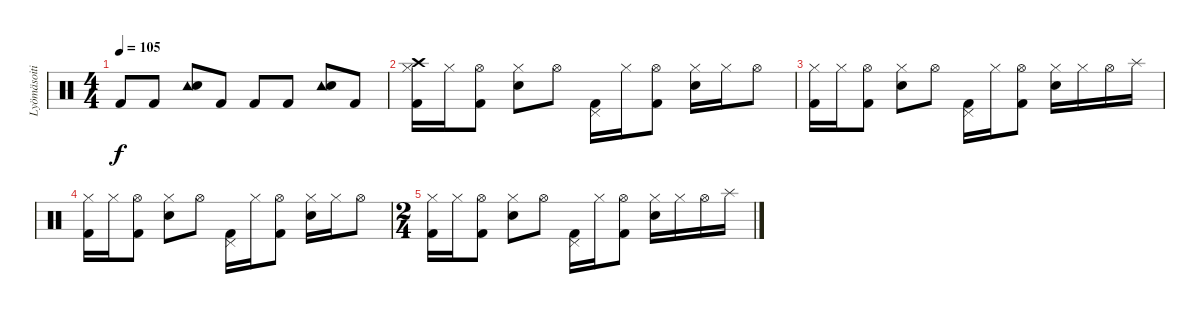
\track ("Lyömäsoitin" "Lyömäsoiti") {instrument percussion}
\staff {score}
\articulation defaults
\ts (4 4)
\tempo 105
\clef neutral
\ks c "Kick (hit) 2".8{dy f} "Kick (hit) 2".8
("Tambourine (hit)" "Electric Snare (hit)").8 "Kick (hit) 2".8 "Kick (hit) 2".8 "Kick (hit) 2".8 ("Tambourine (hit)" "Electric Snare (hit)").8 "Kick (hit) 2".8 |
("Crash high (hit)" "Hi-Hat (closed)" "Kick (hit) 2").16 "Hi-Hat (closed)".16 ("Hi-Hat (open)" "Kick (hit) 2").8 ("Hi-Hat (closed)" "Electric Snare (hit)").8 "Hi-Hat (open)".8 ("Pedal Hi-Hat (hit)" "Kick (hit) 2").16 "Hi-Hat (closed)".16 ("Hi-Hat (open)" "Kick (hit) 2").8 ("Hi-Hat (closed)" "Electric Snare (hit)").16 "Hi-Hat (closed)".16 "Hi-Hat (open)".8 |
("Hi-Hat (closed)" "Kick (hit) 2").16 "Hi-Hat (closed)".16 ("Hi-Hat (open)" "Kick (hit) 2").8 ("Hi-Hat (closed)" "Electric Snare (hit)").8 "Hi-Hat (open)".8 ("Pedal Hi-Hat (hit)" "Kick (hit) 2").16 "Hi-Hat (closed)".16 ("Hi-Hat (open)" "Kick (hit) 2").8 ("Hi-Hat (closed)" "Electric Snare (hit)").16 "Hi-Hat (closed)".16 "Hi-Hat (open)".16 "Splash (hit)".16 |
("Hi-Hat (closed)" "Kick (hit) 2").16 "Hi-Hat (closed)".16 ("Hi-Hat (open)" "Kick (hit) 2").8 ("Hi-Hat (closed)" "Electric Snare (hit)").8 "Hi-Hat (open)".8 ("Pedal Hi-Hat (hit)" "Kick (hit) 2").16 "Hi-Hat (closed)".16 ("Hi-Hat (open)" "Kick (hit) 2").8 ("Hi-Hat (closed)" "Electric Snare (hit)").16 "Hi-Hat (closed)".16 "Hi-Hat (open)".8 |
\ts (2 4)
("Hi-Hat (closed)" "Kick (hit) 2").16 "Hi-Hat (closed)".16 ("Hi-Hat (open)" "Kick (hit) 2").8 ("Hi-Hat (closed)" "Electric Snare (hit)").8 "Hi-Hat (open)".8 ("Pedal Hi-Hat (hit)" "Kick (hit) 2").16 "Hi-Hat (closed)".16 ("Hi-Hat (open)" "Kick (hit) 2").8 ("Hi-Hat (closed)" "Electric Snare (hit)").16 "Hi-Hat (closed)".16 "Hi-Hat (open)".16 "Splash (hit)".16
